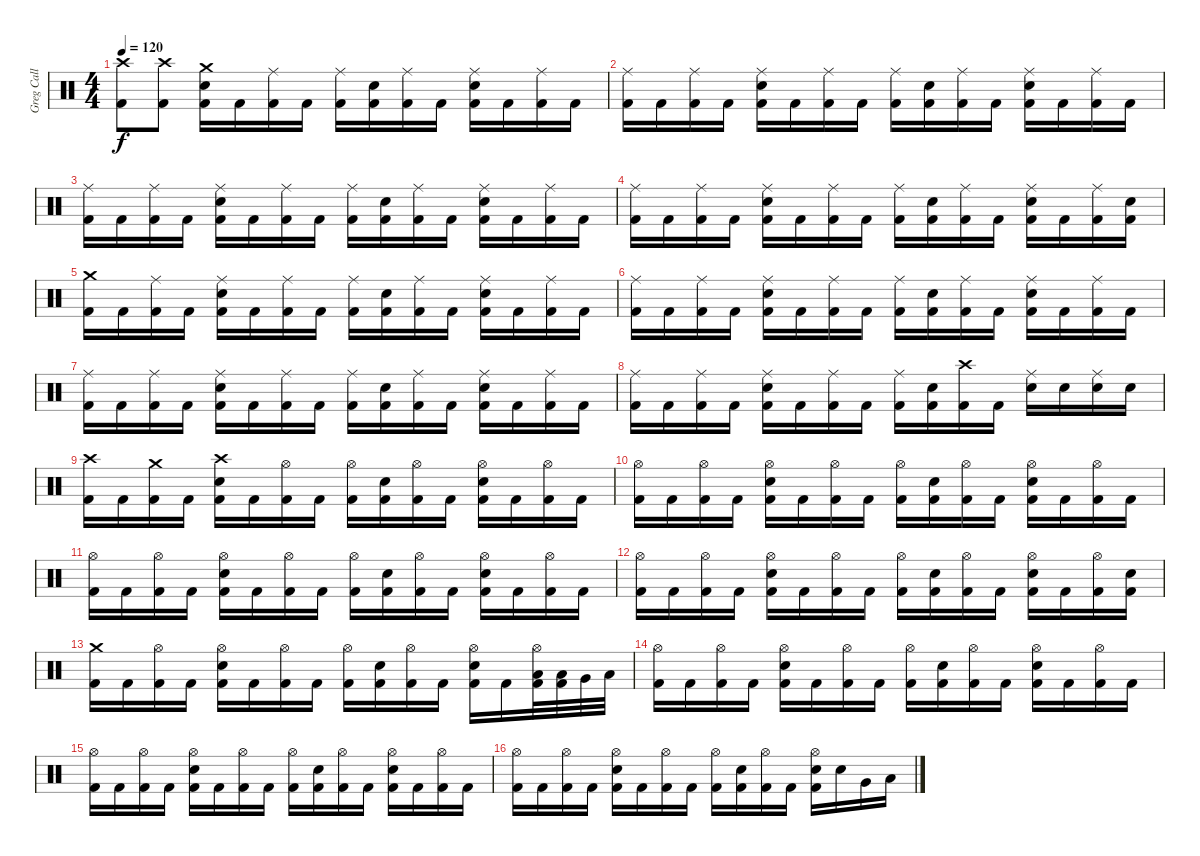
\track ("Greg Call" "Greg Call") {instrument percussion}
\staff {score}
\articulation defaults
\ts (4 4)
\tempo 120
\clef neutral
\ks c
("Crash high (hit)" "Kick (hit) 2").8{dy f} ("Crash high (hit)" "Kick (hit) 2").8 ("Crash medium (hit)" "Snare (hit) 2" "Kick (hit) 2").16 "Kick (hit) 2".16 ("Ride (middle)" "Kick (hit) 2").16 "Kick (hit) 2".16 ("Ride (middle)" "Kick (hit) 2").16 ("Snare (hit) 2" "Kick (hit) 2").16 ("Ride (middle)" "Kick (hit) 2").16 "Kick (hit) 2".16 ("Snare (hit) 2" "Ride (middle)" "Kick (hit) 2").16 "Kick (hit) 2".16 ("Ride (middle)" "Kick (hit) 2").16 "Kick (hit) 2".16 |
("Ride (middle)" "Kick (hit) 2").16 "Kick (hit) 2".16 ("Ride (middle)" "Kick (hit) 2").16 "Kick (hit) 2".16 ("Ride (middle)" "Snare (hit) 2" "Kick (hit) 2").16 "Kick (hit) 2".16 ("Ride (middle)" "Kick (hit) 2").16 "Kick (hit) 2".16 ("Ride (middle)" "Kick (hit) 2").16 ("Snare (hit) 2" "Kick (hit) 2").16 ("Ride (middle)" "Kick (hit) 2").16 "Kick (hit) 2".16 ("Ride (middle)" "Snare (hit) 2" "Kick (hit) 2").16 "Kick (hit) 2".16 ("Ride (middle)" "Kick (hit) 2").16 "Kick (hit) 2".16 |
("Ride (middle)" "Kick (hit) 2").16 "Kick (hit) 2".16 ("Ride (middle)" "Kick (hit) 2").16 "Kick (hit) 2".16 ("Ride (middle)" "Snare (hit) 2" "Kick (hit) 2").16 "Kick (hit) 2".16 ("Ride (middle)" "Kick (hit) 2").16 "Kick (hit) 2".16 ("Ride (middle)" "Kick (hit) 2").16 ("Snare (hit) 2" "Kick (hit) 2").16 ("Ride (middle)" "Kick (hit) 2").16 "Kick (hit) 2".16 ("Ride (middle)" "Snare (hit) 2" "Kick (hit) 2").16 "Kick (hit) 2".16 ("Ride (middle)" "Kick (hit) 2").16 "Kick (hit) 2".16 |
("Ride (middle)" "Kick (hit) 2").16 "Kick (hit) 2".16 ("Ride (middle)" "Kick (hit) 2").16 "Kick (hit) 2".16 ("Ride (middle)" "Snare (hit) 2" "Kick (hit) 2").16 "Kick (hit) 2".16 ("Ride (middle)" "Kick (hit) 2").16 "Kick (hit) 2".16 ("Ride (middle)" "Kick (hit) 2").16 ("Snare (hit) 2" "Kick (hit) 2").16 ("Ride (middle)" "Kick (hit) 2").16 "Kick (hit) 2".16 ("Ride (middle)" "Snare (hit) 2" "Kick (hit) 2").16 "Kick (hit) 2".16 ("Ride (middle)" "Kick (hit) 2").16 ("Snare (hit) 2" "Kick (hit) 2").16 |
("Crash medium (hit)" "Kick (hit) 2").16 "Kick (hit) 2".16 ("Ride (middle)" "Kick (hit) 2").16 "Kick (hit) 2".16 ("Ride (middle)" "Snare (hit) 2" "Kick (hit) 2").16 "Kick (hit) 2".16 ("Ride (middle)" "Kick (hit) 2").16 "Kick (hit) 2".16 ("Ride (middle)" "Kick (hit) 2").16 ("Snare (hit) 2" "Kick (hit) 2").16 ("Ride (middle)" "Kick (hit) 2").16 "Kick (hit) 2".16 ("Ride (middle)" "Snare (hit) 2" "Kick (hit) 2").16 "Kick (hit) 2".16 ("Ride (middle)" "Kick (hit) 2").16 "Kick (hit) 2".16 |
("Ride (middle)" "Kick (hit) 2").16 "Kick (hit) 2".16 ("Ride (middle)" "Kick (hit) 2").16 "Kick (hit) 2".16 ("Ride (middle)" "Snare (hit) 2" "Kick (hit) 2").16 "Kick (hit) 2".16 ("Ride (middle)" "Kick (hit) 2").16 "Kick (hit) 2".16 ("Ride (middle)" "Kick (hit) 2").16 ("Snare (hit) 2" "Kick (hit) 2").16 ("Ride (middle)" "Kick (hit) 2").16 "Kick (hit) 2".16 ("Ride (middle)" "Snare (hit) 2" "Kick (hit) 2").16 "Kick (hit) 2".16 ("Ride (middle)" "Kick (hit) 2").16 "Kick (hit) 2".16 |
("Ride (middle)" "Kick (hit) 2").16 "Kick (hit) 2".16 ("Ride (middle)" "Kick (hit) 2").16 "Kick (hit) 2".16 ("Ride (middle)" "Snare (hit) 2" "Kick (hit) 2").16 "Kick (hit) 2".16 ("Ride (middle)" "Kick (hit) 2").16 "Kick (hit) 2".16 ("Ride (middle)" "Kick (hit) 2").16 ("Snare (hit) 2" "Kick (hit) 2").16 ("Ride (middle)" "Kick (hit) 2").16 "Kick (hit) 2".16 ("Ride (middle)" "Snare (hit) 2" "Kick (hit) 2").16 "Kick (hit) 2".16 ("Ride (middle)" "Kick (hit) 2").16 "Kick (hit) 2".16 |
("Ride (middle)" "Kick (hit) 2").16 "Kick (hit) 2".16 ("Ride (middle)" "Kick (hit) 2").16 "Kick (hit) 2".16 ("Ride (middle)" "Snare (hit) 2" "Kick (hit) 2").16 "Kick (hit) 2".16 ("Ride (middle)" "Kick (hit) 2").16 "Kick (hit) 2".16 ("Ride (middle)" "Kick (hit) 2").16 ("Snare (hit) 2" "Kick (hit) 2").16 ("Crash high (hit)" "Kick (hit) 2").16 "Kick (hit) 2".16 ("Ride (middle)" "Snare (hit) 2").16 "Snare (hit) 2".16 ("Ride (middle)" "Snare (hit) 2").16 "Snare (hit) 2".16 |
("Crash high (hit)" "Kick (hit) 2").16 "Kick (hit) 2".16 ("Crash medium (hit)" "Kick (hit) 2").16 "Kick (hit) 2".16 ("Crash high (hit)" "Snare (hit) 2" "Kick (hit) 2").16 "Kick (hit) 2".16 ("Hi-Hat (open)" "Kick (hit) 2").16 "Kick (hit) 2".16 ("Hi-Hat (open)" "Kick (hit) 2").16 ("Snare (hit) 2" "Kick (hit) 2").16 ("Hi-Hat (open)" "Kick (hit) 2").16 "Kick (hit) 2".16 ("Hi-Hat (open)" "Snare (hit) 2" "Kick (hit) 2").16 "Kick (hit) 2".16 ("Hi-Hat (open)" "Kick (hit) 2").16 "Kick (hit) 2".16 |
("Hi-Hat (open)" "Kick (hit) 2").16 "Kick (hit) 2".16 ("Hi-Hat (open)" "Kick (hit) 2").16 "Kick (hit) 2".16 ("Hi-Hat (open)" "Snare (hit) 2" "Kick (hit) 2").16 "Kick (hit) 2".16 ("Hi-Hat (open)" "Kick (hit) 2").16 "Kick (hit) 2".16 ("Hi-Hat (open)" "Kick (hit) 2").16 ("Snare (hit) 2" "Kick (hit) 2").16 ("Hi-Hat (open)" "Kick (hit) 2").16 "Kick (hit) 2".16 ("Hi-Hat (open)" "Snare (hit) 2" "Kick (hit) 2").16 "Kick (hit) 2".16 ("Hi-Hat (open)" "Kick (hit) 2").16 "Kick (hit) 2".16 |
("Hi-Hat (open)" "Kick (hit) 2").16 "Kick (hit) 2".16 ("Hi-Hat (open)" "Kick (hit) 2").16 "Kick (hit) 2".16 ("Hi-Hat (open)" "Snare (hit) 2" "Kick (hit) 2").16 "Kick (hit) 2".16 ("Hi-Hat (open)" "Kick (hit) 2").16 "Kick (hit) 2".16 ("Hi-Hat (open)" "Kick (hit) 2").16 ("Snare (hit) 2" "Kick (hit) 2").16 ("Hi-Hat (open)" "Kick (hit) 2").16 "Kick (hit) 2".16 ("Hi-Hat (open)" "Snare (hit) 2" "Kick (hit) 2").16 "Kick (hit) 2".16 ("Hi-Hat (open)" "Kick (hit) 2").16 "Kick (hit) 2".16 |
("Hi-Hat (open)" "Kick (hit) 2").16 "Kick (hit) 2".16 ("Hi-Hat (open)" "Kick (hit) 2").16 "Kick (hit) 2".16 ("Hi-Hat (open)" "Snare (hit) 2" "Kick (hit) 2").16 "Kick (hit) 2".16 ("Hi-Hat (open)" "Kick (hit) 2").16 "Kick (hit) 2".16 ("Hi-Hat (open)" "Kick (hit) 2").16 ("Snare (hit) 2" "Kick (hit) 2").16 ("Hi-Hat (open)" "Kick (hit) 2").16 "Kick (hit) 2".16 ("Hi-Hat (open)" "Snare (hit) 2" "Kick (hit) 2").16 "Kick (hit) 2".16 ("Hi-Hat (open)" "Kick (hit) 2").16 ("Snare (hit) 2" "Kick (hit) 2").16 |
("Crash medium (hit)" "Kick (hit) 2").16 "Kick (hit) 2".16 ("Hi-Hat (open)" "Kick (hit) 2").16 "Kick (hit) 2".16 ("Hi-Hat (open)" "Snare (hit) 2" "Kick (hit) 2").16 "Kick (hit) 2".16 ("Hi-Hat (open)" "Kick (hit) 2").16 "Kick (hit) 2".16 ("Hi-Hat (open)" "Kick (hit) 2").16 ("Snare (hit) 2" "Kick (hit) 2").16 ("Hi-Hat (open)" "Kick (hit) 2").16 "Kick (hit) 2".16 ("Hi-Hat (open)" "Snare (hit) 2" "Kick (hit) 2").16 "Kick (hit) 2".16 ("Hi-Hat (open)" "Low Tom (hit)" "Kick (hit) 2").32 ("Low Tom (hit)" "Kick (hit) 2").32 "Very Low Tom (hit)".32 "Low Floor Tom (hit)".32 |
("Hi-Hat (open)" "Kick (hit) 2").16 "Kick (hit) 2".16 ("Hi-Hat (open)" "Kick (hit) 2").16 "Kick (hit) 2".16 ("Hi-Hat (open)" "Snare (hit) 2" "Kick (hit) 2").16 "Kick (hit) 2".16 ("Hi-Hat (open)" "Kick (hit) 2").16 "Kick (hit) 2".16 ("Hi-Hat (open)" "Kick (hit) 2").16 ("Snare (hit) 2" "Kick (hit) 2").16 ("Hi-Hat (open)" "Kick (hit) 2").16 "Kick (hit) 2".16 ("Hi-Hat (open)" "Snare (hit) 2" "Kick (hit) 2").16 "Kick (hit) 2".16 ("Hi-Hat (open)" "Kick (hit) 2").16 "Kick (hit) 2".16 |
("Hi-Hat (open)" "Kick (hit) 2").16 "Kick (hit) 2".16 ("Hi-Hat (open)" "Kick (hit) 2").16 "Kick (hit) 2".16 ("Hi-Hat (open)" "Snare (hit) 2" "Kick (hit) 2").16 "Kick (hit) 2".16 ("Hi-Hat (open)" "Kick (hit) 2").16 "Kick (hit) 2".16 ("Hi-Hat (open)" "Kick (hit) 2").16 ("Snare (hit) 2" "Kick (hit) 2").16 ("Hi-Hat (open)" "Kick (hit) 2").16 "Kick (hit) 2".16 ("Hi-Hat (open)" "Snare (hit) 2" "Kick (hit) 2").16 "Kick (hit) 2".16 ("Hi-Hat (open)" "Kick (hit) 2").16 "Kick (hit) 2".16 |
("Hi-Hat (open)" "Kick (hit) 2").16 "Kick (hit) 2".16 ("Hi-Hat (open)" "Kick (hit) 2").16 "Kick (hit) 2".16 ("Hi-Hat (open)" "Snare (hit) 2" "Kick (hit) 2").16 "Kick (hit) 2".16 ("Hi-Hat (open)" "Kick (hit) 2").16 "Kick (hit) 2".16 ("Hi-Hat (open)" "Kick (hit) 2").16 ("Snare (hit) 2" "Kick (hit) 2").16 ("Hi-Hat (open)" "Kick (hit) 2").16 "Kick (hit) 2".16 ("Hi-Hat (open)" "Snare (hit) 2" "Kick (hit) 2").16 "Snare (hit) 2".16 "Very Low Tom (hit)".16 "Low Floor Tom (hit)".16
